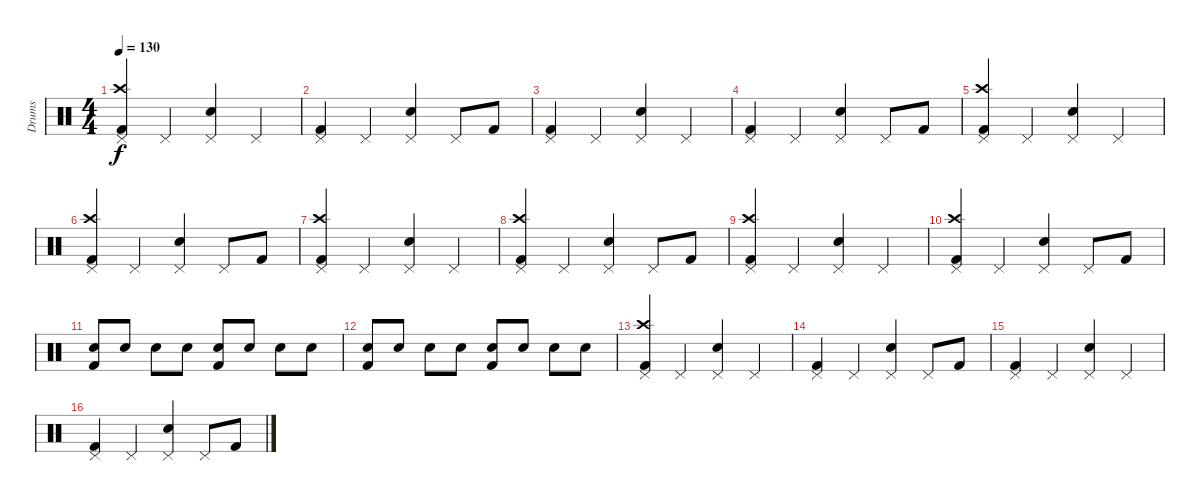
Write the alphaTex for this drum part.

\track ("Drums" "Drums") {instrument percussion}
\staff {score}
\articulation defaults
\ts (4 4)
\tempo 130
\clef neutral
\ks c
("Pedal Hi-Hat (hit)" "Crash high (hit)" "Kick (hit) 2").4{dy f} "Pedal Hi-Hat (hit)".4 ("Pedal Hi-Hat (hit)" "Snare (hit) 2").4 "Pedal Hi-Hat (hit)".4 |
("Pedal Hi-Hat (hit)" "Kick (hit) 2").4 "Pedal Hi-Hat (hit)".4 ("Pedal Hi-Hat (hit)" "Snare (hit) 2").4 "Pedal Hi-Hat (hit)".8 "Kick (hit) 2".8 |
("Pedal Hi-Hat (hit)" "Kick (hit) 2").4 "Pedal Hi-Hat (hit)".4 ("Pedal Hi-Hat (hit)" "Snare (hit) 2").4 "Pedal Hi-Hat (hit)".4 |
("Pedal Hi-Hat (hit)" "Kick (hit) 2").4 "Pedal Hi-Hat (hit)".4 ("Pedal Hi-Hat (hit)" "Snare (hit) 2").4 "Pedal Hi-Hat (hit)".8 "Kick (hit) 2".8 |
("Pedal Hi-Hat (hit)" "Crash high (hit)" "Kick (hit) 2").4 "Pedal Hi-Hat (hit)".4 ("Pedal Hi-Hat (hit)" "Snare (hit) 2").4 "Pedal Hi-Hat (hit)".4 |
("Pedal Hi-Hat (hit)" "Crash high (hit)" "Kick (hit) 2").4 "Pedal Hi-Hat (hit)".4 ("Pedal Hi-Hat (hit)" "Snare (hit) 2").4 "Pedal Hi-Hat (hit)".8 "Kick (hit) 2".8 |
("Pedal Hi-Hat (hit)" "Crash high (hit)" "Kick (hit) 2").4 "Pedal Hi-Hat (hit)".4 ("Pedal Hi-Hat (hit)" "Snare (hit) 2").4 "Pedal Hi-Hat (hit)".4 |
("Pedal Hi-Hat (hit)" "Crash high (hit)" "Kick (hit) 2").4 "Pedal Hi-Hat (hit)".4 ("Pedal Hi-Hat (hit)" "Snare (hit) 2").4 "Pedal Hi-Hat (hit)".8 "Kick (hit) 2".8 |
("Pedal Hi-Hat (hit)" "Crash high (hit)" "Kick (hit) 2").4 "Pedal Hi-Hat (hit)".4 ("Pedal Hi-Hat (hit)" "Snare (hit) 2").4 "Pedal Hi-Hat (hit)".4 |
("Pedal Hi-Hat (hit)" "Crash high (hit)" "Kick (hit) 2").4 "Pedal Hi-Hat (hit)".4 ("Pedal Hi-Hat (hit)" "Snare (hit) 2").4 "Pedal Hi-Hat (hit)".8 "Kick (hit) 2".8 |
("Snare (hit) 2" "Kick (hit) 2").8 "Snare (hit) 2".8 "Snare (hit) 2".8 "Snare (hit) 2".8 ("Snare (hit) 2" "Kick (hit) 2").8 "Snare (hit) 2".8 "Snare (hit) 2".8 "Snare (hit) 2".8 |
("Snare (hit) 2" "Kick (hit) 2").8 "Snare (hit) 2".8 "Snare (hit) 2".8 "Snare (hit) 2".8 ("Snare (hit) 2" "Kick (hit) 2").8 "Snare (hit) 2".8 "Snare (hit) 2".8 "Snare (hit) 2".8 |
("Pedal Hi-Hat (hit)" "Crash high (hit)" "Kick (hit) 2").4 "Pedal Hi-Hat (hit)".4 ("Pedal Hi-Hat (hit)" "Snare (hit) 2").4 "Pedal Hi-Hat (hit)".4 |
("Pedal Hi-Hat (hit)" "Kick (hit) 2").4 "Pedal Hi-Hat (hit)".4 ("Pedal Hi-Hat (hit)" "Snare (hit) 2").4 "Pedal Hi-Hat (hit)".8 "Kick (hit) 2".8 |
("Pedal Hi-Hat (hit)" "Kick (hit) 2").4 "Pedal Hi-Hat (hit)".4 ("Pedal Hi-Hat (hit)" "Snare (hit) 2").4 "Pedal Hi-Hat (hit)".4 |
("Pedal Hi-Hat (hit)" "Kick (hit) 2").4 "Pedal Hi-Hat (hit)".4 ("Pedal Hi-Hat (hit)" "Snare (hit) 2").4 "Pedal Hi-Hat (hit)".8 "Kick (hit) 2".8
